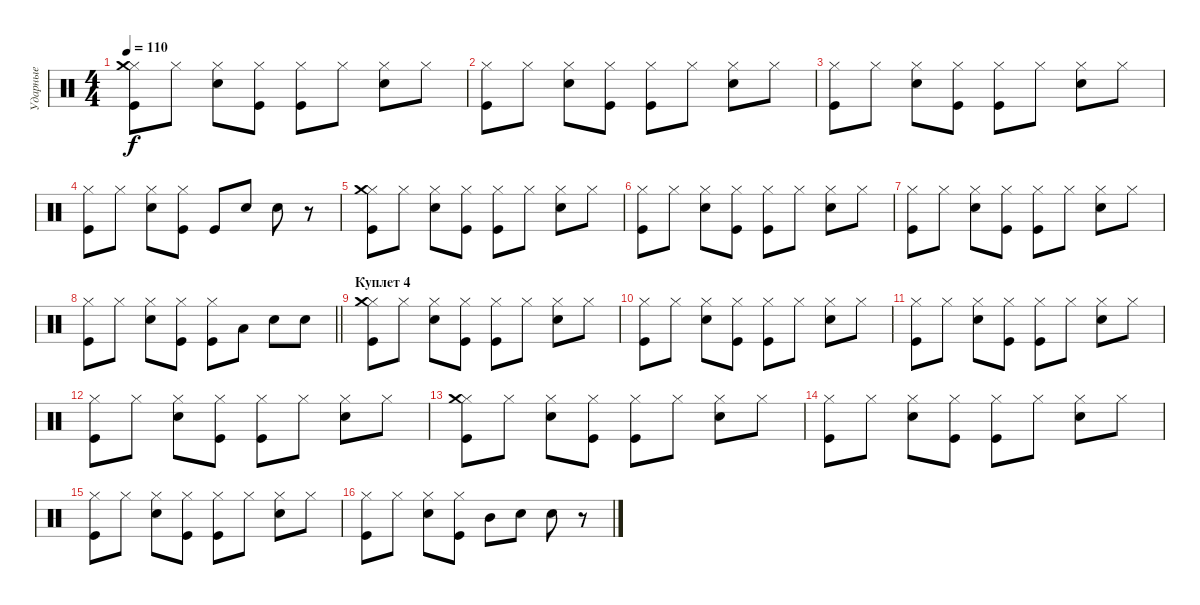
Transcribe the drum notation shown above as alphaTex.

\track ("Ударные" "Ударные") {instrument percussion}
\staff {score}
\articulation defaults
\ts (4 4)
\tempo 110
\clef neutral
\ks c
("Kick (hit)" "Hi-Hat (closed)" "Crash medium (hit)").8{dy f} "Hi-Hat (closed)".8 ("Snare (hit) 2" "Hi-Hat (closed)").8 ("Kick (hit)" "Hi-Hat (closed)").8 ("Hi-Hat (closed)" "Kick (hit)").8 "Hi-Hat (closed)".8 ("Snare (hit) 2" "Hi-Hat (closed)").8 "Hi-Hat (closed)".8 |
("Kick (hit)" "Hi-Hat (closed)").8 "Hi-Hat (closed)".8 ("Snare (hit) 2" "Hi-Hat (closed)").8 ("Kick (hit)" "Hi-Hat (closed)").8 ("Hi-Hat (closed)" "Kick (hit)").8 "Hi-Hat (closed)".8 ("Snare (hit) 2" "Hi-Hat (closed)").8 "Hi-Hat (closed)".8 |
("Kick (hit)" "Hi-Hat (closed)").8 "Hi-Hat (closed)".8 ("Snare (hit) 2" "Hi-Hat (closed)").8 ("Kick (hit)" "Hi-Hat (closed)").8 ("Hi-Hat (closed)" "Kick (hit)").8 "Hi-Hat (closed)".8 ("Snare (hit) 2" "Hi-Hat (closed)").8 "Hi-Hat (closed)".8 |
("Kick (hit)" "Hi-Hat (closed)").8 "Hi-Hat (closed)".8 ("Snare (hit) 2" "Hi-Hat (closed)").8 ("Kick (hit)" "Hi-Hat (closed)").8 "Kick (hit)".8 "Snare (hit) 2".8 "Snare (hit) 2".8 r.8 |
("Kick (hit)" "Hi-Hat (closed)" "Crash medium (hit)").8 "Hi-Hat (closed)".8 ("Snare (hit) 2" "Hi-Hat (closed)").8 ("Kick (hit)" "Hi-Hat (closed)").8 ("Hi-Hat (closed)" "Kick (hit)").8 "Hi-Hat (closed)".8 ("Snare (hit) 2" "Hi-Hat (closed)").8 "Hi-Hat (closed)".8 |
("Kick (hit)" "Hi-Hat (closed)").8 "Hi-Hat (closed)".8 ("Snare (hit) 2" "Hi-Hat (closed)").8 ("Kick (hit)" "Hi-Hat (closed)").8 ("Hi-Hat (closed)" "Kick (hit)").8 "Hi-Hat (closed)".8 ("Snare (hit) 2" "Hi-Hat (closed)").8 "Hi-Hat (closed)".8 |
("Kick (hit)" "Hi-Hat (closed)").8 "Hi-Hat (closed)".8 ("Snare (hit) 2" "Hi-Hat (closed)").8 ("Kick (hit)" "Hi-Hat (closed)").8 ("Hi-Hat (closed)" "Kick (hit)").8 "Hi-Hat (closed)".8 ("Snare (hit) 2" "Hi-Hat (closed)").8 "Hi-Hat (closed)".8 |
\barLineRight lightlight
("Kick (hit)" "Hi-Hat (closed)").8 "Hi-Hat (closed)".8 ("Snare (hit) 2" "Hi-Hat (closed)").8 ("Kick (hit)" "Hi-Hat (closed)").8 ("Hi-Hat (closed)" "Kick (hit)").8 "Low Tom (hit)".8 "Electric Snare (hit)".8 "Electric Snare (hit)".8 |
\section ("" "Куплет 4")
("Kick (hit)" "Hi-Hat (closed)" "Crash medium (hit)").8 "Hi-Hat (closed)".8 ("Snare (hit) 2" "Hi-Hat (closed)").8 ("Kick (hit)" "Hi-Hat (closed)").8 ("Hi-Hat (closed)" "Kick (hit)").8 "Hi-Hat (closed)".8 ("Snare (hit) 2" "Hi-Hat (closed)").8 "Hi-Hat (closed)".8 |
("Kick (hit)" "Hi-Hat (closed)").8 "Hi-Hat (closed)".8 ("Snare (hit) 2" "Hi-Hat (closed)").8 ("Kick (hit)" "Hi-Hat (closed)").8 ("Hi-Hat (closed)" "Kick (hit)").8 "Hi-Hat (closed)".8 ("Snare (hit) 2" "Hi-Hat (closed)").8 "Hi-Hat (closed)".8 |
("Kick (hit)" "Hi-Hat (closed)").8 "Hi-Hat (closed)".8 ("Snare (hit) 2" "Hi-Hat (closed)").8 ("Kick (hit)" "Hi-Hat (closed)").8 ("Hi-Hat (closed)" "Kick (hit)").8 "Hi-Hat (closed)".8 ("Snare (hit) 2" "Hi-Hat (closed)").8 "Hi-Hat (closed)".8 |
("Kick (hit)" "Hi-Hat (closed)").8 "Hi-Hat (closed)".8 ("Snare (hit) 2" "Hi-Hat (closed)").8 ("Kick (hit)" "Hi-Hat (closed)").8 ("Hi-Hat (closed)" "Kick (hit)").8 "Hi-Hat (closed)".8 ("Snare (hit) 2" "Hi-Hat (closed)").8 "Hi-Hat (closed)".8 |
("Kick (hit)" "Hi-Hat (closed)" "Crash medium (hit)").8 "Hi-Hat (closed)".8 ("Snare (hit) 2" "Hi-Hat (closed)").8 ("Kick (hit)" "Hi-Hat (closed)").8 ("Hi-Hat (closed)" "Kick (hit)").8 "Hi-Hat (closed)".8 ("Snare (hit) 2" "Hi-Hat (closed)").8 "Hi-Hat (closed)".8 |
("Kick (hit)" "Hi-Hat (closed)").8 "Hi-Hat (closed)".8 ("Snare (hit) 2" "Hi-Hat (closed)").8 ("Kick (hit)" "Hi-Hat (closed)").8 ("Hi-Hat (closed)" "Kick (hit)").8 "Hi-Hat (closed)".8 ("Snare (hit) 2" "Hi-Hat (closed)").8 "Hi-Hat (closed)".8 |
("Kick (hit)" "Hi-Hat (closed)").8 "Hi-Hat (closed)".8 ("Snare (hit) 2" "Hi-Hat (closed)").8 ("Kick (hit)" "Hi-Hat (closed)").8 ("Hi-Hat (closed)" "Kick (hit)").8 "Hi-Hat (closed)".8 ("Snare (hit) 2" "Hi-Hat (closed)").8 "Hi-Hat (closed)".8 |
("Kick (hit)" "Hi-Hat (closed)").8 "Hi-Hat (closed)".8 ("Snare (hit) 2" "Hi-Hat (closed)").8 ("Kick (hit)" "Hi-Hat (closed)").8 "Mid Tom (hit)".8 "Snare (hit) 2".8 "Snare (hit) 2".8 r.8
